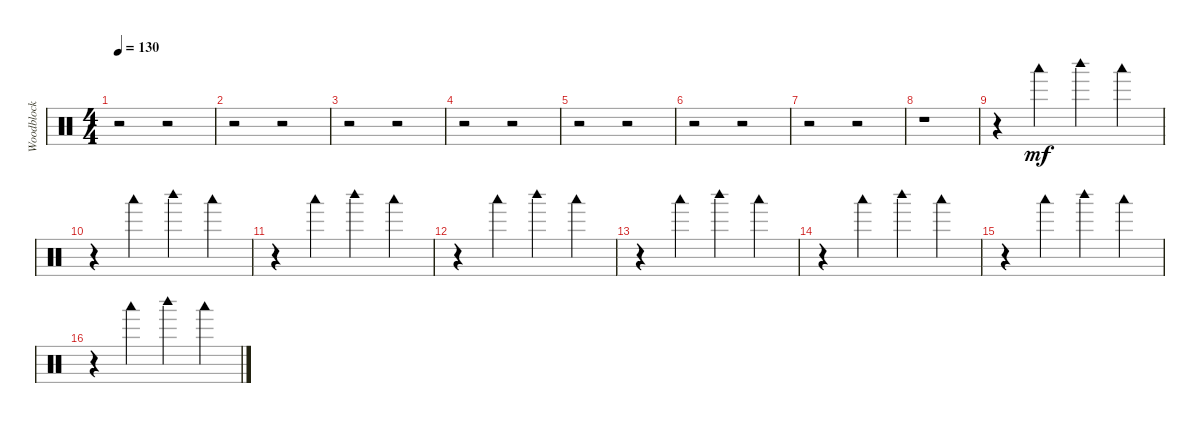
\track ("Woodblock" "Woodblock") {instrument percussion}
\staff {score}
\articulation defaults
\ts (4 4)
\tempo 130
\clef neutral
\ks c
r.2{dy mf} r.2 |
r.2 r.2 |
r.2 r.2 |
r.2 r.2 |
r.2 r.2 |
r.2 r.2 |
r.2 r.2 |
r.1 |
r.4 "Woodblock low (hit)".4 "Woodblock high (hit)".4 "Woodblock low (hit)".4 |
r.4 "Woodblock low (hit)".4 "Woodblock high (hit)".4 "Woodblock low (hit)".4 |
r.4 "Woodblock low (hit)".4 "Woodblock high (hit)".4 "Woodblock low (hit)".4 |
r.4 "Woodblock low (hit)".4 "Woodblock high (hit)".4 "Woodblock low (hit)".4 |
r.4 "Woodblock low (hit)".4 "Woodblock high (hit)".4 "Woodblock low (hit)".4 |
r.4 "Woodblock low (hit)".4 "Woodblock high (hit)".4 "Woodblock low (hit)".4 |
r.4 "Woodblock low (hit)".4 "Woodblock high (hit)".4 "Woodblock low (hit)".4 |
r.4 "Woodblock low (hit)".4 "Woodblock high (hit)".4 "Woodblock low (hit)".4
